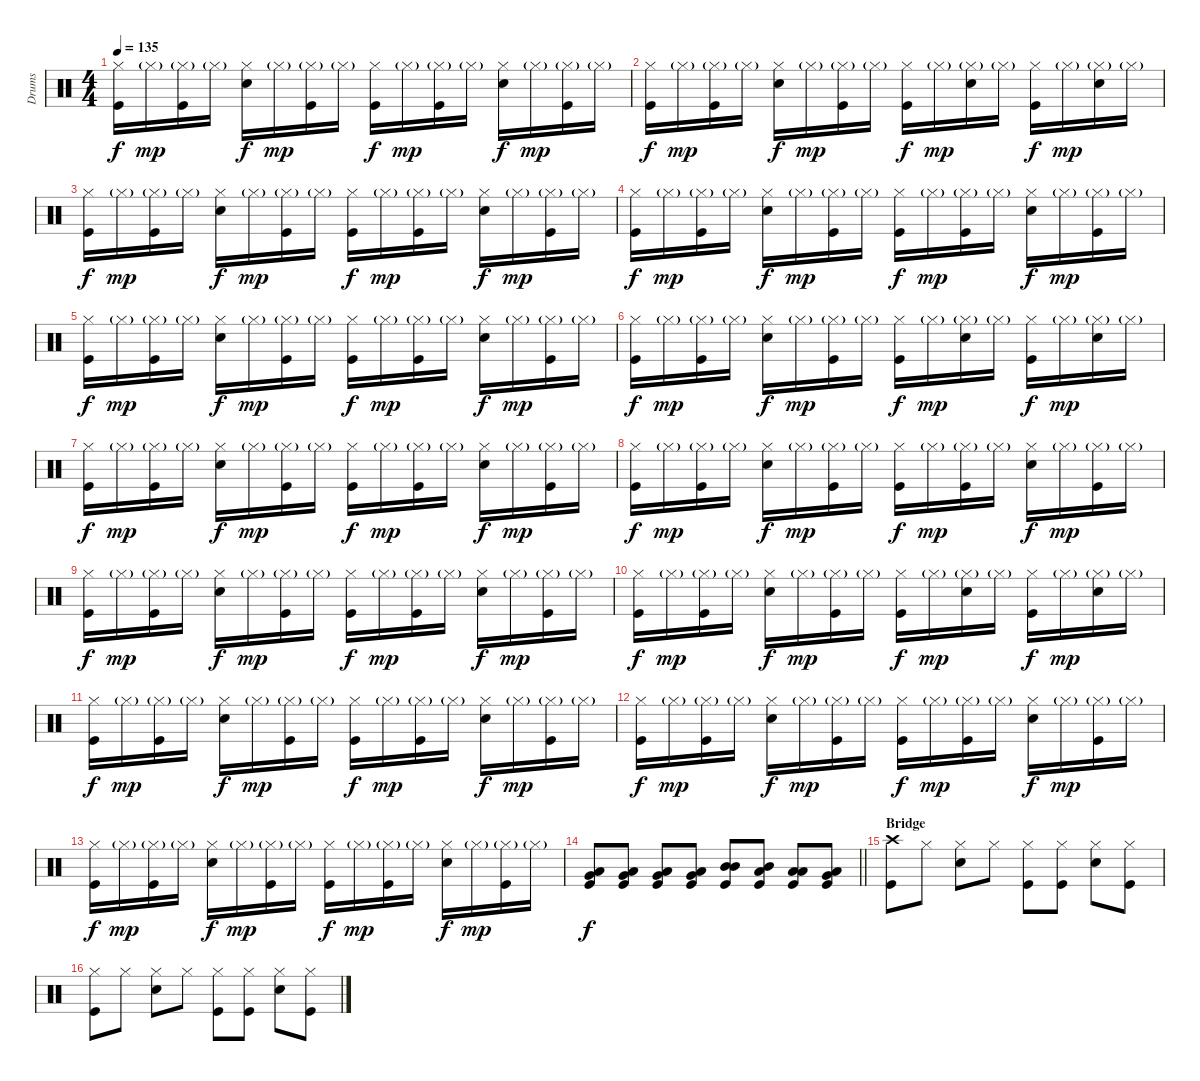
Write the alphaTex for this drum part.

\track ("Drums" "Drums") {instrument percussion}
\staff {score}
\articulation defaults
\ts (4 4)
\tempo 135
\clef neutral
\ks c
("Hi-Hat (closed)" "Kick (hit)").16{dy f} "Hi-Hat (closed)"{g}.16{dy mp} ("Hi-Hat (closed)"{g} "Kick (hit)").16 "Hi-Hat (closed)"{g}.16 ("Hi-Hat (closed)" "Snare (hit) 2").16{dy f} "Hi-Hat (closed)"{g}.16{dy mp} ("Hi-Hat (closed)"{g} "Kick (hit)").16 "Hi-Hat (closed)"{g}.16 ("Hi-Hat (closed)" "Kick (hit)").16{dy f} "Hi-Hat (closed)"{g}.16{dy mp} ("Hi-Hat (closed)"{g} "Kick (hit)").16 "Hi-Hat (closed)"{g}.16 ("Hi-Hat (closed)" "Snare (hit) 2").16{dy f} "Hi-Hat (closed)"{g}.16{dy mp} ("Hi-Hat (closed)"{g} "Kick (hit)").16 "Hi-Hat (closed)"{g}.16 |
("Hi-Hat (closed)" "Kick (hit)").16{dy f} "Hi-Hat (closed)"{g}.16{dy mp} ("Hi-Hat (closed)"{g} "Kick (hit)").16 "Hi-Hat (closed)"{g}.16 ("Hi-Hat (closed)" "Snare (hit) 2").16{dy f} "Hi-Hat (closed)"{g}.16{dy mp} ("Hi-Hat (closed)"{g} "Kick (hit)").16 "Hi-Hat (closed)"{g}.16 ("Hi-Hat (closed)" "Kick (hit)").16{dy f} "Hi-Hat (closed)"{g}.16{dy mp} ("Hi-Hat (closed)"{g} "Snare (hit) 2").16 "Hi-Hat (closed)"{g}.16 ("Hi-Hat (closed)" "Kick (hit)").16{dy f} "Hi-Hat (closed)"{g}.16{dy mp} ("Hi-Hat (closed)"{g} "Snare (hit) 2").16 "Hi-Hat (closed)"{g}.16 |
("Hi-Hat (closed)" "Kick (hit)").16{dy f} "Hi-Hat (closed)"{g}.16{dy mp} ("Hi-Hat (closed)"{g} "Kick (hit)").16 "Hi-Hat (closed)"{g}.16 ("Hi-Hat (closed)" "Snare (hit) 2").16{dy f} "Hi-Hat (closed)"{g}.16{dy mp} ("Hi-Hat (closed)"{g} "Kick (hit)").16 "Hi-Hat (closed)"{g}.16 ("Hi-Hat (closed)" "Kick (hit)").16{dy f} "Hi-Hat (closed)"{g}.16{dy mp} ("Hi-Hat (closed)"{g} "Kick (hit)").16 "Hi-Hat (closed)"{g}.16 ("Hi-Hat (closed)" "Snare (hit) 2").16{dy f} "Hi-Hat (closed)"{g}.16{dy mp} ("Hi-Hat (closed)"{g} "Kick (hit)").16 "Hi-Hat (closed)"{g}.16 |
("Hi-Hat (closed)" "Kick (hit)").16{dy f} "Hi-Hat (closed)"{g}.16{dy mp} ("Hi-Hat (closed)"{g} "Kick (hit)").16 "Hi-Hat (closed)"{g}.16 ("Hi-Hat (closed)" "Snare (hit) 2").16{dy f} "Hi-Hat (closed)"{g}.16{dy mp} ("Hi-Hat (closed)"{g} "Kick (hit)").16 "Hi-Hat (closed)"{g}.16 ("Hi-Hat (closed)" "Kick (hit)").16{dy f} "Hi-Hat (closed)"{g}.16{dy mp} ("Hi-Hat (closed)"{g} "Kick (hit)").16 "Hi-Hat (closed)"{g}.16 ("Hi-Hat (closed)" "Snare (hit) 2").16{dy f} "Hi-Hat (closed)"{g}.16{dy mp} ("Hi-Hat (closed)"{g} "Kick (hit)").16 "Hi-Hat (closed)"{g}.16 |
("Hi-Hat (closed)" "Kick (hit)").16{dy f} "Hi-Hat (closed)"{g}.16{dy mp} ("Hi-Hat (closed)"{g} "Kick (hit)").16 "Hi-Hat (closed)"{g}.16 ("Hi-Hat (closed)" "Snare (hit) 2").16{dy f} "Hi-Hat (closed)"{g}.16{dy mp} ("Hi-Hat (closed)"{g} "Kick (hit)").16 "Hi-Hat (closed)"{g}.16 ("Hi-Hat (closed)" "Kick (hit)").16{dy f} "Hi-Hat (closed)"{g}.16{dy mp} ("Hi-Hat (closed)"{g} "Kick (hit)").16 "Hi-Hat (closed)"{g}.16 ("Hi-Hat (closed)" "Snare (hit) 2").16{dy f} "Hi-Hat (closed)"{g}.16{dy mp} ("Hi-Hat (closed)"{g} "Kick (hit)").16 "Hi-Hat (closed)"{g}.16 |
("Hi-Hat (closed)" "Kick (hit)").16{dy f} "Hi-Hat (closed)"{g}.16{dy mp} ("Hi-Hat (closed)"{g} "Kick (hit)").16 "Hi-Hat (closed)"{g}.16 ("Hi-Hat (closed)" "Snare (hit) 2").16{dy f} "Hi-Hat (closed)"{g}.16{dy mp} ("Hi-Hat (closed)"{g} "Kick (hit)").16 "Hi-Hat (closed)"{g}.16 ("Hi-Hat (closed)" "Kick (hit)").16{dy f} "Hi-Hat (closed)"{g}.16{dy mp} ("Hi-Hat (closed)"{g} "Snare (hit) 2").16 "Hi-Hat (closed)"{g}.16 ("Hi-Hat (closed)" "Kick (hit)").16{dy f} "Hi-Hat (closed)"{g}.16{dy mp} ("Hi-Hat (closed)"{g} "Snare (hit) 2").16 "Hi-Hat (closed)"{g}.16 |
("Hi-Hat (closed)" "Kick (hit)").16{dy f} "Hi-Hat (closed)"{g}.16{dy mp} ("Hi-Hat (closed)"{g} "Kick (hit)").16 "Hi-Hat (closed)"{g}.16 ("Hi-Hat (closed)" "Snare (hit) 2").16{dy f} "Hi-Hat (closed)"{g}.16{dy mp} ("Hi-Hat (closed)"{g} "Kick (hit)").16 "Hi-Hat (closed)"{g}.16 ("Hi-Hat (closed)" "Kick (hit)").16{dy f} "Hi-Hat (closed)"{g}.16{dy mp} ("Hi-Hat (closed)"{g} "Kick (hit)").16 "Hi-Hat (closed)"{g}.16 ("Hi-Hat (closed)" "Snare (hit) 2").16{dy f} "Hi-Hat (closed)"{g}.16{dy mp} ("Hi-Hat (closed)"{g} "Kick (hit)").16 "Hi-Hat (closed)"{g}.16 |
("Hi-Hat (closed)" "Kick (hit)").16{dy f} "Hi-Hat (closed)"{g}.16{dy mp} ("Hi-Hat (closed)"{g} "Kick (hit)").16 "Hi-Hat (closed)"{g}.16 ("Hi-Hat (closed)" "Snare (hit) 2").16{dy f} "Hi-Hat (closed)"{g}.16{dy mp} ("Hi-Hat (closed)"{g} "Kick (hit)").16 "Hi-Hat (closed)"{g}.16 ("Hi-Hat (closed)" "Kick (hit)").16{dy f} "Hi-Hat (closed)"{g}.16{dy mp} ("Hi-Hat (closed)"{g} "Kick (hit)").16 "Hi-Hat (closed)"{g}.16 ("Hi-Hat (closed)" "Snare (hit) 2").16{dy f} "Hi-Hat (closed)"{g}.16{dy mp} ("Hi-Hat (closed)"{g} "Kick (hit)").16 "Hi-Hat (closed)"{g}.16 |
("Hi-Hat (closed)" "Kick (hit)").16{dy f} "Hi-Hat (closed)"{g}.16{dy mp} ("Hi-Hat (closed)"{g} "Kick (hit)").16 "Hi-Hat (closed)"{g}.16 ("Hi-Hat (closed)" "Snare (hit) 2").16{dy f} "Hi-Hat (closed)"{g}.16{dy mp} ("Hi-Hat (closed)"{g} "Kick (hit)").16 "Hi-Hat (closed)"{g}.16 ("Hi-Hat (closed)" "Kick (hit)").16{dy f} "Hi-Hat (closed)"{g}.16{dy mp} ("Hi-Hat (closed)"{g} "Kick (hit)").16 "Hi-Hat (closed)"{g}.16 ("Hi-Hat (closed)" "Snare (hit) 2").16{dy f} "Hi-Hat (closed)"{g}.16{dy mp} ("Hi-Hat (closed)"{g} "Kick (hit)").16 "Hi-Hat (closed)"{g}.16 |
("Hi-Hat (closed)" "Kick (hit)").16{dy f} "Hi-Hat (closed)"{g}.16{dy mp} ("Hi-Hat (closed)"{g} "Kick (hit)").16 "Hi-Hat (closed)"{g}.16 ("Hi-Hat (closed)" "Snare (hit) 2").16{dy f} "Hi-Hat (closed)"{g}.16{dy mp} ("Hi-Hat (closed)"{g} "Kick (hit)").16 "Hi-Hat (closed)"{g}.16 ("Hi-Hat (closed)" "Kick (hit)").16{dy f} "Hi-Hat (closed)"{g}.16{dy mp} ("Hi-Hat (closed)"{g} "Snare (hit) 2").16 "Hi-Hat (closed)"{g}.16 ("Hi-Hat (closed)" "Kick (hit)").16{dy f} "Hi-Hat (closed)"{g}.16{dy mp} ("Hi-Hat (closed)"{g} "Snare (hit) 2").16 "Hi-Hat (closed)"{g}.16 |
("Hi-Hat (closed)" "Kick (hit)").16{dy f} "Hi-Hat (closed)"{g}.16{dy mp} ("Hi-Hat (closed)"{g} "Kick (hit)").16 "Hi-Hat (closed)"{g}.16 ("Hi-Hat (closed)" "Snare (hit) 2").16{dy f} "Hi-Hat (closed)"{g}.16{dy mp} ("Hi-Hat (closed)"{g} "Kick (hit)").16 "Hi-Hat (closed)"{g}.16 ("Hi-Hat (closed)" "Kick (hit)").16{dy f} "Hi-Hat (closed)"{g}.16{dy mp} ("Hi-Hat (closed)"{g} "Kick (hit)").16 "Hi-Hat (closed)"{g}.16 ("Hi-Hat (closed)" "Snare (hit) 2").16{dy f} "Hi-Hat (closed)"{g}.16{dy mp} ("Hi-Hat (closed)"{g} "Kick (hit)").16 "Hi-Hat (closed)"{g}.16 |
("Hi-Hat (closed)" "Kick (hit)").16{dy f} "Hi-Hat (closed)"{g}.16{dy mp} ("Hi-Hat (closed)"{g} "Kick (hit)").16 "Hi-Hat (closed)"{g}.16 ("Hi-Hat (closed)" "Snare (hit) 2").16{dy f} "Hi-Hat (closed)"{g}.16{dy mp} ("Hi-Hat (closed)"{g} "Kick (hit)").16 "Hi-Hat (closed)"{g}.16 ("Hi-Hat (closed)" "Kick (hit)").16{dy f} "Hi-Hat (closed)"{g}.16{dy mp} ("Hi-Hat (closed)"{g} "Kick (hit)").16 "Hi-Hat (closed)"{g}.16 ("Hi-Hat (closed)" "Snare (hit) 2").16{dy f} "Hi-Hat (closed)"{g}.16{dy mp} ("Hi-Hat (closed)"{g} "Kick (hit)").16 "Hi-Hat (closed)"{g}.16 |
("Hi-Hat (closed)" "Kick (hit)").16{dy f} "Hi-Hat (closed)"{g}.16{dy mp} ("Hi-Hat (closed)"{g} "Kick (hit)").16 "Hi-Hat (closed)"{g}.16 ("Hi-Hat (closed)" "Snare (hit) 2").16{dy f} "Hi-Hat (closed)"{g}.16{dy mp} ("Hi-Hat (closed)"{g} "Kick (hit)").16 "Hi-Hat (closed)"{g}.16 ("Hi-Hat (closed)" "Kick (hit)").16{dy f} "Hi-Hat (closed)"{g}.16{dy mp} ("Hi-Hat (closed)"{g} "Kick (hit)").16 "Hi-Hat (closed)"{g}.16 ("Hi-Hat (closed)" "Snare (hit) 2").16{dy f} "Hi-Hat (closed)"{g}.16{dy mp} ("Hi-Hat (closed)"{g} "Kick (hit)").16 "Hi-Hat (closed)"{g}.16 |
\barLineRight lightlight
("Low Tom (hit)" "Very Low Tom (hit)" "Kick (hit)").8{dy f} ("Low Tom (hit)" "Very Low Tom (hit)" "Kick (hit)").8 ("Low Tom (hit)" "Very Low Tom (hit)" "Kick (hit)").8 ("Low Tom (hit)" "Very Low Tom (hit)" "Kick (hit)").8 ("Mid Tom (hit)" "Mid Tom (hit)" "Kick (hit)").8 ("Mid Tom (hit)" "Low Tom (hit)" "Kick (hit)").8 ("Low Tom (hit)" "Low Tom (hit)" "Kick (hit)").8 ("Low Tom (hit)" "Very Low Tom (hit)" "Kick (hit)").8 |
\section ("" "Bridge")
("Crash high (hit)" "Kick (hit)").8 "Hi-Hat (closed)".8 ("Hi-Hat (closed)" "Snare (hit) 2").8 "Hi-Hat (closed)".8 ("Hi-Hat (closed)" "Kick (hit)").8 ("Hi-Hat (closed)" "Kick (hit)").8 ("Hi-Hat (closed)" "Snare (hit) 2").8 ("Hi-Hat (closed)" "Kick (hit)").8 |
("Hi-Hat (closed)" "Kick (hit)").8 "Hi-Hat (closed)".8 ("Hi-Hat (closed)" "Snare (hit) 2").8 "Hi-Hat (closed)".8 ("Hi-Hat (closed)" "Kick (hit)").8 ("Hi-Hat (closed)" "Kick (hit)").8 ("Hi-Hat (closed)" "Snare (hit) 2").8 ("Hi-Hat (closed)" "Kick (hit)").8
